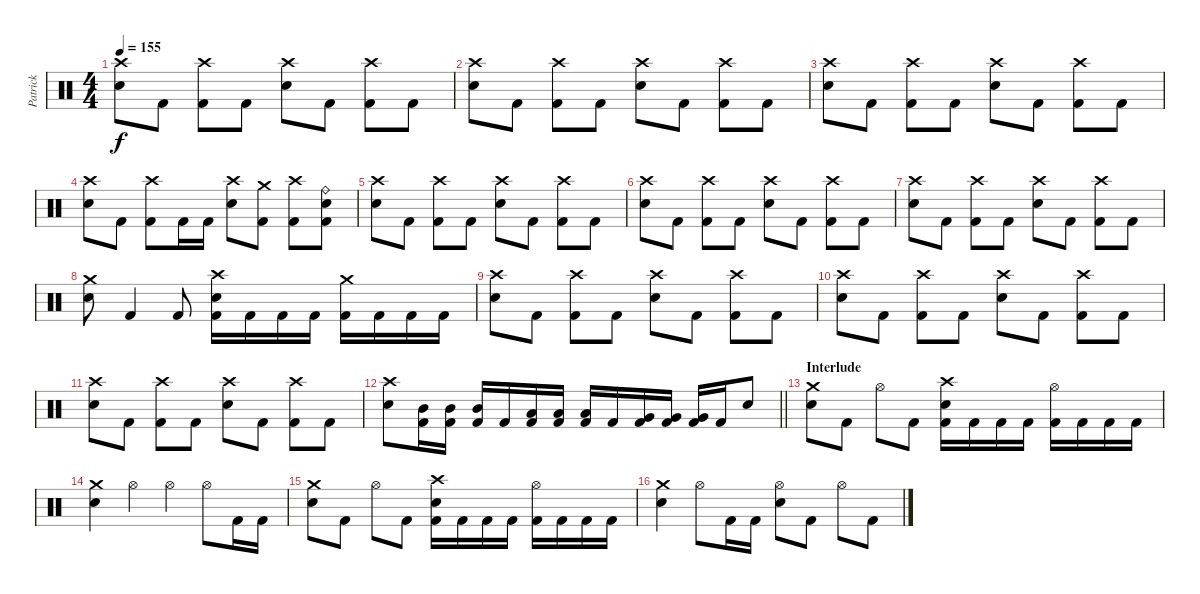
\track ("Patrick" "Patrick") {instrument percussion}
\staff {score}
\articulation defaults
\ts (4 4)
\tempo 155
\clef neutral
\ks c
("Crash high (hit)" "Electric Snare (hit)").8{dy f} "Kick (hit) 2".8 ("Crash high (hit)" "Kick (hit) 2").8 "Kick (hit) 2".8 ("Crash high (hit)" "Electric Snare (hit)").8 "Kick (hit) 2".8 ("Crash high (hit)" "Kick (hit) 2").8 "Kick (hit) 2".8 |
("Crash high (hit)" "Electric Snare (hit)").8 "Kick (hit) 2".8 ("Crash high (hit)" "Kick (hit) 2").8 "Kick (hit) 2".8 ("Crash high (hit)" "Electric Snare (hit)").8 "Kick (hit) 2".8 ("Crash high (hit)" "Kick (hit) 2").8 "Kick (hit) 2".8 |
("Crash high (hit)" "Electric Snare (hit)").8 "Kick (hit) 2".8 ("Crash high (hit)" "Kick (hit) 2").8 "Kick (hit) 2".8 ("Crash high (hit)" "Electric Snare (hit)").8 "Kick (hit) 2".8 ("Crash high (hit)" "Kick (hit) 2").8 "Kick (hit) 2".8 |
("Crash high (hit)" "Electric Snare (hit)").8 "Kick (hit) 2".8 ("Crash high (hit)" "Kick (hit) 2").8 "Kick (hit) 2".16 "Kick (hit) 2".16 ("Crash high (hit)" "Electric Snare (hit)").8 ("Crash medium (hit)" "Kick (hit) 2").8 ("Crash high (hit)" "Kick (hit) 2").8 ("Ride (bell)" "Electric Snare (hit)" "Kick (hit) 2").8 |
("Crash high (hit)" "Electric Snare (hit)").8 "Kick (hit) 2".8 ("Crash high (hit)" "Kick (hit) 2").8 "Kick (hit) 2".8 ("Crash high (hit)" "Electric Snare (hit)").8 "Kick (hit) 2".8 ("Crash high (hit)" "Kick (hit) 2").8 "Kick (hit) 2".8 |
("Crash high (hit)" "Electric Snare (hit)").8 "Kick (hit) 2".8 ("Crash high (hit)" "Kick (hit) 2").8 "Kick (hit) 2".8 ("Crash high (hit)" "Electric Snare (hit)").8 "Kick (hit) 2".8 ("Crash high (hit)" "Kick (hit) 2").8 "Kick (hit) 2".8 |
("Crash high (hit)" "Electric Snare (hit)").8 "Kick (hit) 2".8 ("Crash high (hit)" "Kick (hit) 2").8 "Kick (hit) 2".8 ("Crash high (hit)" "Electric Snare (hit)").8 "Kick (hit) 2".8 ("Crash high (hit)" "Kick (hit) 2").8 "Kick (hit) 2".8 |
("Crash medium (hit)" "Electric Snare (hit)").8 "Kick (hit) 2".4 "Kick (hit) 2".8 ("Crash high (hit)" "Electric Snare (hit)" "Kick (hit) 2").16 "Kick (hit) 2".16 "Kick (hit) 2".16 "Kick (hit) 2".16 ("Crash medium (hit)" "Kick (hit) 2").16 "Kick (hit) 2".16 "Kick (hit) 2".16 "Kick (hit) 2".16 |
("Crash high (hit)" "Electric Snare (hit)").8 "Kick (hit) 2".8 ("Crash high (hit)" "Kick (hit) 2").8 "Kick (hit) 2".8 ("Crash high (hit)" "Electric Snare (hit)").8 "Kick (hit) 2".8 ("Crash high (hit)" "Kick (hit) 2").8 "Kick (hit) 2".8 |
("Crash high (hit)" "Electric Snare (hit)").8 "Kick (hit) 2".8 ("Crash high (hit)" "Kick (hit) 2").8 "Kick (hit) 2".8 ("Crash high (hit)" "Electric Snare (hit)").8 "Kick (hit) 2".8 ("Crash high (hit)" "Kick (hit) 2").8 "Kick (hit) 2".8 |
("Crash high (hit)" "Electric Snare (hit)").8 "Kick (hit) 2".8 ("Crash high (hit)" "Kick (hit) 2").8 "Kick (hit) 2".8 ("Crash high (hit)" "Electric Snare (hit)").8 "Kick (hit) 2".8 ("Crash high (hit)" "Kick (hit) 2").8 "Kick (hit) 2".8 |
\barLineRight lightlight
("Crash high (hit)" "Electric Snare (hit)").8 ("Mid Tom (hit)" "Kick (hit) 2").16 ("Mid Tom (hit)" "Kick (hit) 2").16 ("Mid Tom (hit)" "Kick (hit) 2").16 "Kick (hit) 2".16 ("Low Tom (hit)" "Kick (hit) 2").16 ("Low Tom (hit)" "Kick (hit) 2").16 ("Low Tom (hit)" "Kick (hit) 2").16 "Kick (hit) 2".16 ("Very Low Tom (hit)" "Kick (hit) 2").16 ("Very Low Tom (hit)" "Kick (hit) 2").16 ("Very Low Tom (hit)" "Kick (hit) 2").16 "Kick (hit) 2".16 "Electric Snare (hit)".8 |
\section ("" "Interlude")
("Crash medium (hit)" "Electric Snare (hit)").8 "Kick (hit) 2".8 "Hi-Hat (open)".8 "Kick (hit) 2".8 ("Crash high (hit)" "Electric Snare (hit)" "Kick (hit) 2").16 "Kick (hit) 2".16 "Kick (hit) 2".16 "Kick (hit) 2".16 ("Hi-Hat (open)" "Kick (hit) 2").16 "Kick (hit) 2".16 "Kick (hit) 2".16 "Kick (hit) 2".16 |
("Crash medium (hit)" "Electric Snare (hit)").4 "Hi-Hat (open)".4 "Hi-Hat (open)".4 "Hi-Hat (open)".8 "Kick (hit) 2".16 "Kick (hit) 2".16 |
("Crash medium (hit)" "Electric Snare (hit)").8 "Kick (hit) 2".8 "Hi-Hat (open)".8 "Kick (hit) 2".8 ("Crash high (hit)" "Electric Snare (hit)" "Kick (hit) 2").16 "Kick (hit) 2".16 "Kick (hit) 2".16 "Kick (hit) 2".16 ("Hi-Hat (open)" "Kick (hit) 2").16 "Kick (hit) 2".16 "Kick (hit) 2".16 "Kick (hit) 2".16 |
("Crash medium (hit)" "Electric Snare (hit)").4 "Hi-Hat (open)".8 "Kick (hit) 2".16 "Kick (hit) 2".16 ("Hi-Hat (open)" "Electric Snare (hit)").8 "Kick (hit) 2".8 "Hi-Hat (open)".8 "Kick (hit) 2".8
